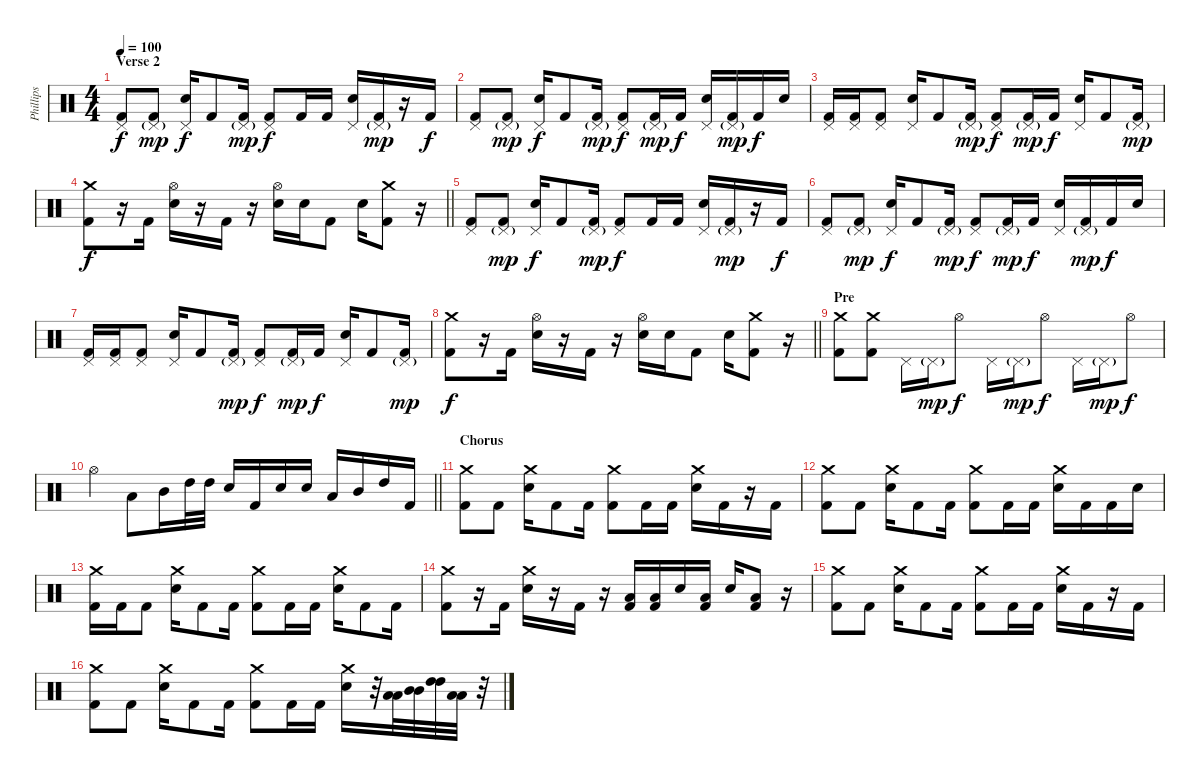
\track ("Phillips" "Phillips") {instrument percussion}
\staff {score}
\articulation defaults
\ts (4 4)
\section ("" "Verse 2")
\tempo 100
\clef neutral
\ks c
("Pedal Hi-Hat (hit)" "Kick (hit) 2").8{dy f} ("Pedal Hi-Hat (hit)"{g} "Kick (hit) 2").8{dy mp} ("Pedal Hi-Hat (hit)" "Electric Snare (hit)").16{dy f} "Kick (hit) 2".8 ("Pedal Hi-Hat (hit)"{g} "Kick (hit) 2").16{dy mp} ("Pedal Hi-Hat (hit)" "Kick (hit) 2").8{dy f} "Kick (hit) 2".16 "Kick (hit) 2".16 ("Pedal Hi-Hat (hit)" "Electric Snare (hit)").16 ("Pedal Hi-Hat (hit)"{g} "Kick (hit) 2").16{dy mp} r.16 "Kick (hit) 2".16{dy f} |
("Pedal Hi-Hat (hit)" "Kick (hit) 2").8 ("Pedal Hi-Hat (hit)"{g} "Kick (hit) 2").8{dy mp} ("Pedal Hi-Hat (hit)" "Electric Snare (hit)").16{dy f} "Kick (hit) 2".8 ("Pedal Hi-Hat (hit)"{g} "Kick (hit) 2").16{dy mp} ("Pedal Hi-Hat (hit)" "Kick (hit) 2").8{dy f} ("Pedal Hi-Hat (hit)"{g} "Kick (hit) 2").16{dy mp} "Kick (hit) 2".16{dy f} ("Pedal Hi-Hat (hit)" "Electric Snare (hit)").16 ("Pedal Hi-Hat (hit)"{g} "Kick (hit) 2").16{dy mp} "Kick (hit) 2".16{dy f} "Electric Snare (hit)".16 |
("Pedal Hi-Hat (hit)" "Kick (hit) 2").16 ("Pedal Hi-Hat (hit)" "Kick (hit) 2").16 ("Pedal Hi-Hat (hit)" "Kick (hit) 2").8 ("Pedal Hi-Hat (hit)" "Electric Snare (hit)").16 "Kick (hit) 2".8 ("Pedal Hi-Hat (hit)"{g} "Kick (hit) 2").16{dy mp} ("Pedal Hi-Hat (hit)" "Kick (hit) 2").8{dy f} ("Pedal Hi-Hat (hit)"{g} "Kick (hit) 2").16{dy mp} "Kick (hit) 2".16{dy f} ("Pedal Hi-Hat (hit)" "Electric Snare (hit)").16 "Kick (hit) 2".8 ("Pedal Hi-Hat (hit)"{g} "Kick (hit) 2").16{dy mp} |
\barLineRight lightlight
("Crash medium (hit)" "Kick (hit) 2").8{dy f} r.16 "Kick (hit) 2".16 ("Hi-Hat (open)" "Electric Snare (hit)").16 r.16 "Kick (hit) 2".16 r.16 ("Hi-Hat (open)" "Electric Snare (hit)").16 "Electric Snare (hit)".16 "Kick (hit) 2".8 "Electric Snare (hit)".16 ("Crash medium (hit)" "Kick (hit) 2").8 r.16 |
("Pedal Hi-Hat (hit)" "Kick (hit) 2").8 ("Pedal Hi-Hat (hit)"{g} "Kick (hit) 2").8{dy mp} ("Pedal Hi-Hat (hit)" "Electric Snare (hit)").16{dy f} "Kick (hit) 2".8 ("Pedal Hi-Hat (hit)"{g} "Kick (hit) 2").16{dy mp} ("Pedal Hi-Hat (hit)" "Kick (hit) 2").8{dy f} "Kick (hit) 2".16 "Kick (hit) 2".16 ("Pedal Hi-Hat (hit)" "Electric Snare (hit)").16 ("Pedal Hi-Hat (hit)"{g} "Kick (hit) 2").16{dy mp} r.16 "Kick (hit) 2".16{dy f} |
("Pedal Hi-Hat (hit)" "Kick (hit) 2").8 ("Pedal Hi-Hat (hit)"{g} "Kick (hit) 2").8{dy mp} ("Pedal Hi-Hat (hit)" "Electric Snare (hit)").16{dy f} "Kick (hit) 2".8 ("Pedal Hi-Hat (hit)"{g} "Kick (hit) 2").16{dy mp} ("Pedal Hi-Hat (hit)" "Kick (hit) 2").8{dy f} ("Pedal Hi-Hat (hit)"{g} "Kick (hit) 2").16{dy mp} "Kick (hit) 2".16{dy f} ("Pedal Hi-Hat (hit)" "Electric Snare (hit)").16 ("Pedal Hi-Hat (hit)"{g} "Kick (hit) 2").16{dy mp} "Kick (hit) 2".16{dy f} "Electric Snare (hit)".16 |
("Pedal Hi-Hat (hit)" "Kick (hit) 2").16 ("Pedal Hi-Hat (hit)" "Kick (hit) 2").16 ("Pedal Hi-Hat (hit)" "Kick (hit) 2").8 ("Pedal Hi-Hat (hit)" "Electric Snare (hit)").16 "Kick (hit) 2".8 ("Pedal Hi-Hat (hit)"{g} "Kick (hit) 2").16{dy mp} ("Pedal Hi-Hat (hit)" "Kick (hit) 2").8{dy f} ("Pedal Hi-Hat (hit)"{g} "Kick (hit) 2").16{dy mp} "Kick (hit) 2".16{dy f} ("Pedal Hi-Hat (hit)" "Electric Snare (hit)").16 "Kick (hit) 2".8 ("Pedal Hi-Hat (hit)"{g} "Kick (hit) 2").16{dy mp} |
\barLineRight lightlight
("Crash medium (hit)" "Kick (hit) 2").8{dy f} r.16 "Kick (hit) 2".16 ("Hi-Hat (open)" "Electric Snare (hit)").16 r.16 "Kick (hit) 2".16 r.16 ("Hi-Hat (open)" "Electric Snare (hit)").16 "Electric Snare (hit)".16 "Kick (hit) 2".8 "Electric Snare (hit)".16 ("Crash medium (hit)" "Kick (hit) 2").8 r.16 |
\section ("" "Pre")
("Kick (hit) 2" "Crash medium (hit)").8 ("Kick (hit) 2" "Crash medium (hit)").8 "Pedal Hi-Hat (hit)".16 "Pedal Hi-Hat (hit)"{g}.16{dy mp} "Hi-Hat (open)".8{dy f} "Pedal Hi-Hat (hit)".16 "Pedal Hi-Hat (hit)"{g}.16{dy mp} "Hi-Hat (open)".8{dy f} "Pedal Hi-Hat (hit)".16 "Pedal Hi-Hat (hit)"{g}.16{dy mp} "Hi-Hat (open)".8{dy f} |
\barLineRight lightlight "Hi-Hat (open)".4 "Low Tom (hit)".8 "Mid Tom (hit)".16 "High Tom (hit)".32 "High Tom (hit)".32 "Electric Snare (hit)".16 "Kick (hit) 2".16 "Electric Snare (hit)".16 "Electric Snare (hit)".16 "Low Tom (hit)".16 "Mid Tom (hit)".16 "High Tom (hit)".16 "Kick (hit) 2".16
|
\section ("" "Chorus")
("Crash medium (hit)" "Kick (hit) 2").8 "Kick (hit) 2".8 ("Crash medium (hit)" "Electric Snare (hit)").16 "Kick (hit) 2".8 "Kick (hit) 2".16 ("Crash medium (hit)" "Kick (hit) 2").8 "Kick (hit) 2".16 "Kick (hit) 2".16 ("Crash medium (hit)" "Electric Snare (hit)").16 "Kick (hit) 2".16 r.16 "Kick (hit) 2".16 |
("Crash medium (hit)" "Kick (hit) 2").8 "Kick (hit) 2".8 ("Crash medium (hit)" "Electric Snare (hit)").16 "Kick (hit) 2".8 "Kick (hit) 2".16 ("Crash medium (hit)" "Kick (hit) 2").8 "Kick (hit) 2".16 "Kick (hit) 2".16 ("Crash medium (hit)" "Electric Snare (hit)").16 "Kick (hit) 2".16 "Kick (hit) 2".16 "Electric Snare (hit)".16 |
("Crash medium (hit)" "Kick (hit) 2").16 "Kick (hit) 2".16 "Kick (hit) 2".8 ("Crash medium (hit)" "Electric Snare (hit)").16 "Kick (hit) 2".8 "Kick (hit) 2".16 ("Crash medium (hit)" "Kick (hit) 2").8 "Kick (hit) 2".16 "Kick (hit) 2".16 ("Crash medium (hit)" "Electric Snare (hit)").16 "Kick (hit) 2".8 "Kick (hit) 2".16 |
("Crash medium (hit)" "Kick (hit) 2").8 r.16 "Kick (hit) 2".16 ("Crash medium (hit)" "Electric Snare (hit)").16 r.16 "Kick (hit) 2".16 r.16 ("Low Tom (hit)" "Kick (hit) 2").16 ("Low Tom (hit)" "Kick (hit) 2").16 "Electric Snare (hit)".16 ("Low Tom (hit)" "Kick (hit) 2").16 "Electric Snare (hit)".16 ("Low Tom (hit)" "Kick (hit) 2").8 r.16 |
("Crash medium (hit)" "Kick (hit) 2").8 "Kick (hit) 2".8 ("Crash medium (hit)" "Electric Snare (hit)").16 "Kick (hit) 2".8 "Kick (hit) 2".16 ("Crash medium (hit)" "Kick (hit) 2").8 "Kick (hit) 2".16 "Kick (hit) 2".16 ("Crash medium (hit)" "Electric Snare (hit)").16 "Kick (hit) 2".16 r.16 "Kick (hit) 2".16 |
("Crash medium (hit)" "Kick (hit) 2").8 "Kick (hit) 2".8 ("Crash medium (hit)" "Electric Snare (hit)").16 "Kick (hit) 2".8 "Kick (hit) 2".16 ("Crash medium (hit)" "Kick (hit) 2").8 "Kick (hit) 2".16 "Kick (hit) 2".16 ("Crash medium (hit)" "Electric Snare (hit)").16 r.32 ("Low Tom (hit)" "Low Tom (hit)").32 ("Mid Tom (hit)" "Mid Tom (hit)").32 ("High Tom (hit)" "High Tom (hit)").32 ("Low Tom (hit)" "Low Tom (hit)").32 r.32
